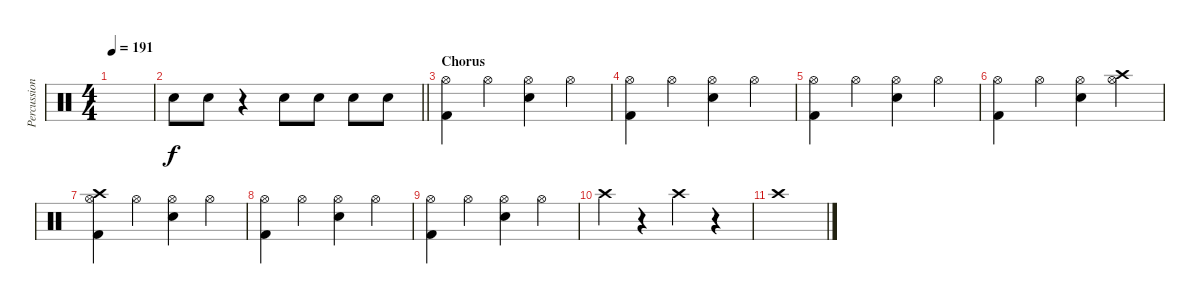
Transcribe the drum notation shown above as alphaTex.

\track ("Percussion" "Percussion") {instrument percussion}
\staff {score}
\articulation defaults
\ts (4 4)
\tempo 191
\clef neutral
\ks c
|
\barLineRight lightlight "Snare (hit) 2".8 "Snare (hit) 2".8
r.4 "Snare (hit) 2".8 "Snare (hit) 2".8 "Snare (hit) 2".8 "Snare (hit) 2".8 |
\section ("" "Chorus")
("Hi-Hat (open)" "Kick (hit) 2").4 "Hi-Hat (open)".4 ("Hi-Hat (open)" "Snare (hit) 2").4 "Hi-Hat (open)".4 |
("Hi-Hat (open)" "Kick (hit) 2").4 "Hi-Hat (open)".4 ("Hi-Hat (open)" "Snare (hit) 2").4 "Hi-Hat (open)".4 |
("Hi-Hat (open)" "Kick (hit) 2").4 "Hi-Hat (open)".4 ("Hi-Hat (open)" "Snare (hit) 2").4 "Hi-Hat (open)".4 |
("Hi-Hat (open)" "Kick (hit) 2").4 "Hi-Hat (open)".4 ("Hi-Hat (open)" "Snare (hit) 2").4 ("Hi-Hat (open)" "Crash high (hit)").4 |
("Hi-Hat (open)" "Crash high (hit)" "Kick (hit) 2").4 "Hi-Hat (open)".4 ("Hi-Hat (open)" "Snare (hit) 2").4 "Hi-Hat (open)".4 |
("Hi-Hat (open)" "Kick (hit) 2").4 "Hi-Hat (open)".4 ("Hi-Hat (open)" "Snare (hit) 2").4 "Hi-Hat (open)".4 |
("Hi-Hat (open)" "Kick (hit) 2").4 "Hi-Hat (open)".4 ("Hi-Hat (open)" "Snare (hit) 2").4 "Hi-Hat (open)".4 |
"Crash high (hit)".4 r.4 "Crash high (hit)".4 r.4 |
"Crash high (hit)".1
